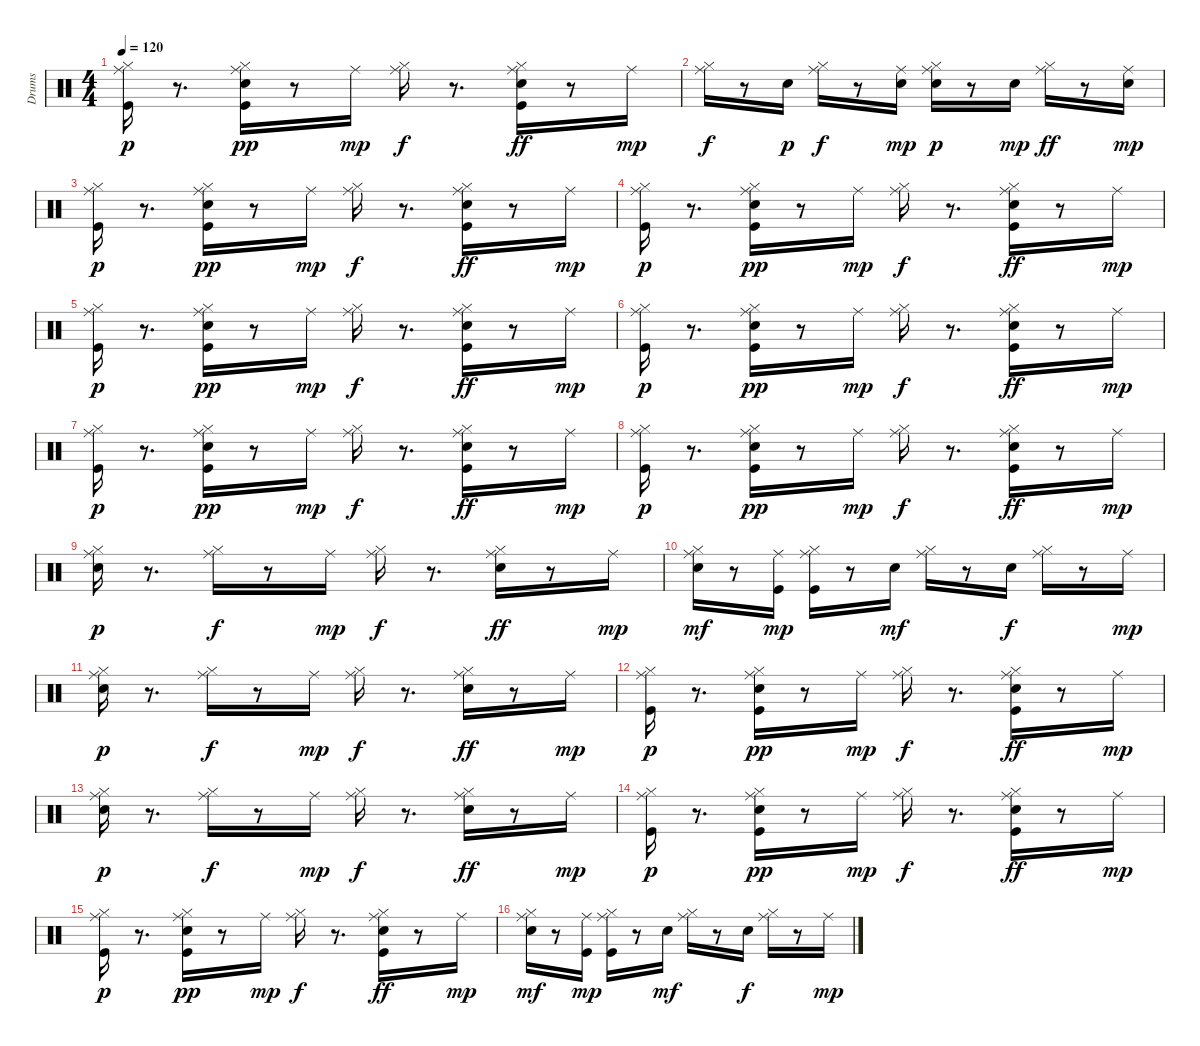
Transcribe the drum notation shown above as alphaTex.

\track ("Drums" "Drums") {instrument percussion}
\staff {score}
\articulation defaults
\ts (4 4)
\tempo 120
\clef neutral
\ks c
("Kick (hit)" "Hi-Hat (closed)" "Ride (middle)").16{dy p} r.8{d} ("Kick (hit)" "Snare (hit) 2" "Hi-Hat (closed)" "Ride (middle)").16{dy pp} r.8 "Ride (middle)".16{dy mp} ("Hi-Hat (closed)" "Ride (middle)").16{dy f} r.8{d} ("Kick (hit)" "Snare (hit) 2" "Hi-Hat (closed)" "Ride (middle)").16{dy ff} r.8 "Ride (middle)".16{dy mp} |
("Hi-Hat (closed)" "Ride (middle)").16{dy f} r.8 "Snare (hit) 2".16{dy p} ("Hi-Hat (closed)" "Ride (middle)").16{dy f} r.8 ("Snare (hit) 2" "Ride (middle)").16{dy mp} ("Snare (hit) 2" "Hi-Hat (closed)" "Ride (middle)").16{dy p} r.8 "Snare (hit) 2".16{dy mp} ("Hi-Hat (closed)" "Ride (middle)").16{dy ff} r.8 ("Snare (hit) 2" "Ride (middle)").16{dy mp} |
("Kick (hit)" "Hi-Hat (closed)" "Ride (middle)").16{dy p} r.8{d} ("Kick (hit)" "Snare (hit) 2" "Hi-Hat (closed)" "Ride (middle)").16{dy pp} r.8 "Ride (middle)".16{dy mp} ("Hi-Hat (closed)" "Ride (middle)").16{dy f} r.8{d} ("Kick (hit)" "Snare (hit) 2" "Hi-Hat (closed)" "Ride (middle)").16{dy ff} r.8 "Ride (middle)".16{dy mp} |
("Kick (hit)" "Hi-Hat (closed)" "Ride (middle)").16{dy p} r.8{d} ("Kick (hit)" "Snare (hit) 2" "Hi-Hat (closed)" "Ride (middle)").16{dy pp} r.8 "Ride (middle)".16{dy mp} ("Hi-Hat (closed)" "Ride (middle)").16{dy f} r.8{d} ("Kick (hit)" "Snare (hit) 2" "Hi-Hat (closed)" "Ride (middle)").16{dy ff} r.8 "Ride (middle)".16{dy mp} |
("Kick (hit)" "Hi-Hat (closed)" "Ride (middle)").16{dy p} r.8{d} ("Kick (hit)" "Snare (hit) 2" "Hi-Hat (closed)" "Ride (middle)").16{dy pp} r.8 "Ride (middle)".16{dy mp} ("Hi-Hat (closed)" "Ride (middle)").16{dy f} r.8{d} ("Kick (hit)" "Snare (hit) 2" "Hi-Hat (closed)" "Ride (middle)").16{dy ff} r.8 "Ride (middle)".16{dy mp} |
("Kick (hit)" "Hi-Hat (closed)" "Ride (middle)").16{dy p} r.8{d} ("Kick (hit)" "Snare (hit) 2" "Hi-Hat (closed)" "Ride (middle)").16{dy pp} r.8 "Ride (middle)".16{dy mp} ("Hi-Hat (closed)" "Ride (middle)").16{dy f} r.8{d} ("Kick (hit)" "Snare (hit) 2" "Hi-Hat (closed)" "Ride (middle)").16{dy ff} r.8 "Ride (middle)".16{dy mp} |
("Kick (hit)" "Hi-Hat (closed)" "Ride (middle)").16{dy p} r.8{d} ("Kick (hit)" "Snare (hit) 2" "Hi-Hat (closed)" "Ride (middle)").16{dy pp} r.8 "Ride (middle)".16{dy mp} ("Hi-Hat (closed)" "Ride (middle)").16{dy f} r.8{d} ("Kick (hit)" "Snare (hit) 2" "Hi-Hat (closed)" "Ride (middle)").16{dy ff} r.8 "Ride (middle)".16{dy mp} |
("Kick (hit)" "Hi-Hat (closed)" "Ride (middle)").16{dy p} r.8{d} ("Kick (hit)" "Snare (hit) 2" "Hi-Hat (closed)" "Ride (middle)").16{dy pp} r.8 "Ride (middle)".16{dy mp} ("Hi-Hat (closed)" "Ride (middle)").16{dy f} r.8{d} ("Kick (hit)" "Snare (hit) 2" "Hi-Hat (closed)" "Ride (middle)").16{dy ff} r.8 "Ride (middle)".16{dy mp} |
("Snare (hit) 2" "Hi-Hat (closed)" "Ride (middle)").16{dy p} r.8{d} ("Hi-Hat (closed)" "Ride (middle)").16{dy f} r.8 "Ride (middle)".16{dy mp} ("Hi-Hat (closed)" "Ride (middle)").16{dy f} r.8{d} ("Snare (hit) 2" "Hi-Hat (closed)" "Ride (middle)").16{dy ff} r.8 "Ride (middle)".16{dy mp} |
("Snare (hit) 2" "Hi-Hat (closed)" "Ride (middle)").16{dy mf} r.8 ("Kick (hit)" "Ride (middle)").16{dy mp} ("Kick (hit)" "Hi-Hat (closed)" "Ride (middle)").16 r.8 "Snare (hit) 2".16{dy mf} ("Hi-Hat (closed)" "Ride (middle)").16 r.8 "Snare (hit) 2".16{dy f} ("Hi-Hat (closed)" "Ride (middle)").16 r.8 "Ride (middle)".16{dy mp} |
("Snare (hit) 2" "Hi-Hat (closed)" "Ride (middle)").16{dy p} r.8{d} ("Hi-Hat (closed)" "Ride (middle)").16{dy f} r.8 "Ride (middle)".16{dy mp} ("Hi-Hat (closed)" "Ride (middle)").16{dy f} r.8{d} ("Snare (hit) 2" "Hi-Hat (closed)" "Ride (middle)").16{dy ff} r.8 "Ride (middle)".16{dy mp} |
("Kick (hit)" "Hi-Hat (closed)" "Ride (middle)").16{dy p} r.8{d} ("Kick (hit)" "Snare (hit) 2" "Hi-Hat (closed)" "Ride (middle)").16{dy pp} r.8 "Ride (middle)".16{dy mp} ("Hi-Hat (closed)" "Ride (middle)").16{dy f} r.8{d} ("Kick (hit)" "Snare (hit) 2" "Hi-Hat (closed)" "Ride (middle)").16{dy ff} r.8 "Ride (middle)".16{dy mp} |
("Snare (hit) 2" "Hi-Hat (closed)" "Ride (middle)").16{dy p} r.8{d} ("Hi-Hat (closed)" "Ride (middle)").16{dy f} r.8 "Ride (middle)".16{dy mp} ("Hi-Hat (closed)" "Ride (middle)").16{dy f} r.8{d} ("Snare (hit) 2" "Hi-Hat (closed)" "Ride (middle)").16{dy ff} r.8 "Ride (middle)".16{dy mp} |
("Kick (hit)" "Hi-Hat (closed)" "Ride (middle)").16{dy p} r.8{d} ("Kick (hit)" "Snare (hit) 2" "Hi-Hat (closed)" "Ride (middle)").16{dy pp} r.8 "Ride (middle)".16{dy mp} ("Hi-Hat (closed)" "Ride (middle)").16{dy f} r.8{d} ("Kick (hit)" "Snare (hit) 2" "Hi-Hat (closed)" "Ride (middle)").16{dy ff} r.8 "Ride (middle)".16{dy mp} |
("Kick (hit)" "Hi-Hat (closed)" "Ride (middle)").16{dy p} r.8{d} ("Kick (hit)" "Snare (hit) 2" "Hi-Hat (closed)" "Ride (middle)").16{dy pp} r.8 "Ride (middle)".16{dy mp} ("Hi-Hat (closed)" "Ride (middle)").16{dy f} r.8{d} ("Kick (hit)" "Snare (hit) 2" "Hi-Hat (closed)" "Ride (middle)").16{dy ff} r.8 "Ride (middle)".16{dy mp} |
("Snare (hit) 2" "Hi-Hat (closed)" "Ride (middle)").16{dy mf} r.8 ("Kick (hit)" "Ride (middle)").16{dy mp} ("Kick (hit)" "Hi-Hat (closed)" "Ride (middle)").16 r.8 "Snare (hit) 2".16{dy mf} ("Hi-Hat (closed)" "Ride (middle)").16 r.8 "Snare (hit) 2".16{dy f} ("Hi-Hat (closed)" "Ride (middle)").16 r.8 "Ride (middle)".16{dy mp}
